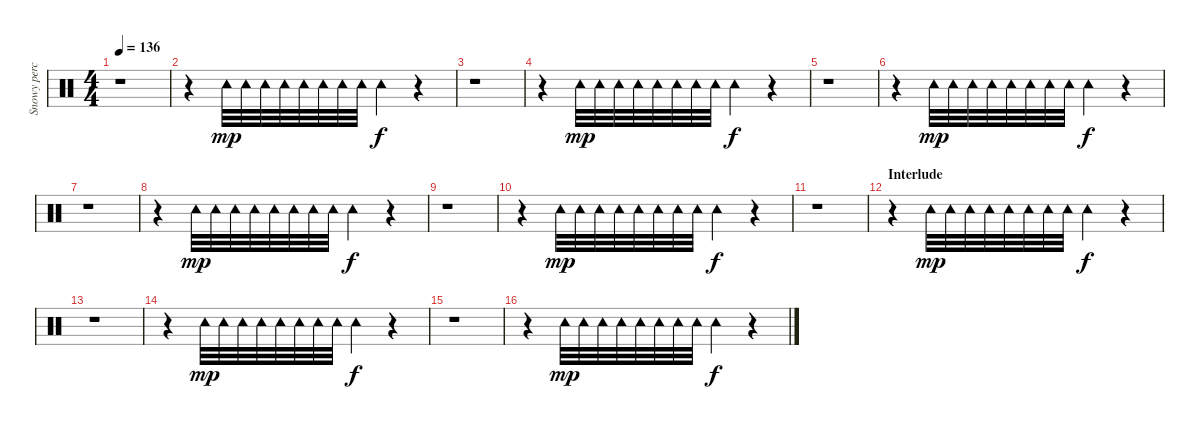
\track ("Snowy percussion" "Snowy perc") {instrument percussion}
\staff {score}
\articulation defaults
\ts (4 4)
\tempo 136
\clef neutral
\ks c
r.1{dy f} |
r.4 "Tambourine (hit)".32{dy mp} "Tambourine (hit)".32 "Tambourine (hit)".32 "Tambourine (hit)".32 "Tambourine (hit)".32 "Tambourine (hit)".32 "Tambourine (hit)".32 "Tambourine (hit)".32 "Tambourine (hit)".4{dy f} r.4 |
r.1 |
r.4 "Tambourine (hit)".32{dy mp} "Tambourine (hit)".32 "Tambourine (hit)".32 "Tambourine (hit)".32 "Tambourine (hit)".32 "Tambourine (hit)".32 "Tambourine (hit)".32 "Tambourine (hit)".32 "Tambourine (hit)".4{dy f} r.4 |
r.1 |
r.4 "Tambourine (hit)".32{dy mp} "Tambourine (hit)".32 "Tambourine (hit)".32 "Tambourine (hit)".32 "Tambourine (hit)".32 "Tambourine (hit)".32 "Tambourine (hit)".32 "Tambourine (hit)".32 "Tambourine (hit)".4{dy f} r.4 |
r.1 |
r.4 "Tambourine (hit)".32{dy mp} "Tambourine (hit)".32 "Tambourine (hit)".32 "Tambourine (hit)".32 "Tambourine (hit)".32 "Tambourine (hit)".32 "Tambourine (hit)".32 "Tambourine (hit)".32 "Tambourine (hit)".4{dy f} r.4 |
r.1 |
r.4 "Tambourine (hit)".32{dy mp} "Tambourine (hit)".32 "Tambourine (hit)".32 "Tambourine (hit)".32 "Tambourine (hit)".32 "Tambourine (hit)".32 "Tambourine (hit)".32 "Tambourine (hit)".32 "Tambourine (hit)".4{dy f} r.4 |
r.1 |
\section ("" "Interlude")
r.4 "Tambourine (hit)".32{dy mp} "Tambourine (hit)".32 "Tambourine (hit)".32 "Tambourine (hit)".32 "Tambourine (hit)".32 "Tambourine (hit)".32 "Tambourine (hit)".32 "Tambourine (hit)".32 "Tambourine (hit)".4{dy f} r.4 |
r.1 |
r.4 "Tambourine (hit)".32{dy mp} "Tambourine (hit)".32 "Tambourine (hit)".32 "Tambourine (hit)".32 "Tambourine (hit)".32 "Tambourine (hit)".32 "Tambourine (hit)".32 "Tambourine (hit)".32 "Tambourine (hit)".4{dy f} r.4 |
r.1 |
r.4 "Tambourine (hit)".32{dy mp} "Tambourine (hit)".32 "Tambourine (hit)".32 "Tambourine (hit)".32 "Tambourine (hit)".32 "Tambourine (hit)".32 "Tambourine (hit)".32 "Tambourine (hit)".32 "Tambourine (hit)".4{dy f} r.4
